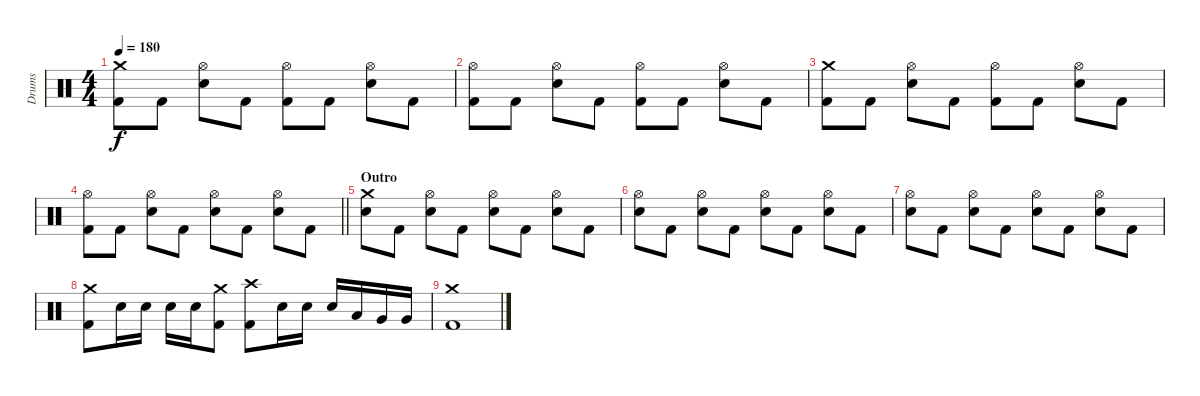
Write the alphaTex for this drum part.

\track ("Drums" "Drums") {instrument percussion}
\staff {score}
\articulation defaults
\ts (4 4)
\tempo 180
\clef neutral
\ks c
("Crash medium (hit)" "Kick (hit) 2").8{dy f} "Kick (hit) 2".8 ("Hi-Hat (open)" "Electric Snare (hit)").8 "Kick (hit) 2".8 ("Hi-Hat (open)" "Kick (hit) 2").8 "Kick (hit) 2".8 ("Hi-Hat (open)" "Electric Snare (hit)").8 "Kick (hit) 2".8 |
("Hi-Hat (open)" "Kick (hit) 2").8 "Kick (hit) 2".8 ("Hi-Hat (open)" "Electric Snare (hit)").8 "Kick (hit) 2".8 ("Hi-Hat (open)" "Kick (hit) 2").8 "Kick (hit) 2".8 ("Hi-Hat (open)" "Electric Snare (hit)").8 "Kick (hit) 2".8 |
("Crash medium (hit)" "Kick (hit) 2").8 "Kick (hit) 2".8 ("Hi-Hat (open)" "Electric Snare (hit)").8 "Kick (hit) 2".8 ("Hi-Hat (open)" "Kick (hit) 2").8 "Kick (hit) 2".8 ("Hi-Hat (open)" "Electric Snare (hit)").8 "Kick (hit) 2".8 |
\barLineRight lightlight
("Hi-Hat (open)" "Kick (hit) 2").8 "Kick (hit) 2".8 ("Hi-Hat (open)" "Electric Snare (hit)").8 "Kick (hit) 2".8 ("Hi-Hat (open)" "Electric Snare (hit)").8 "Kick (hit) 2".8 ("Hi-Hat (open)" "Electric Snare (hit)").8 "Kick (hit) 2".8 |
\section ("" "Outro")
("Crash medium (hit)" "Electric Snare (hit)").8 "Kick (hit) 2".8 ("Hi-Hat (open)" "Electric Snare (hit)").8 "Kick (hit) 2".8 ("Hi-Hat (open)" "Electric Snare (hit)").8 "Kick (hit) 2".8 ("Hi-Hat (open)" "Electric Snare (hit)").8 "Kick (hit) 2".8 |
("Hi-Hat (open)" "Electric Snare (hit)").8 "Kick (hit) 2".8 ("Hi-Hat (open)" "Electric Snare (hit)").8 "Kick (hit) 2".8 ("Hi-Hat (open)" "Electric Snare (hit)").8 "Kick (hit) 2".8 ("Hi-Hat (open)" "Electric Snare (hit)").8 "Kick (hit) 2".8 |
("Hi-Hat (open)" "Electric Snare (hit)").8 "Kick (hit) 2".8 ("Hi-Hat (open)" "Electric Snare (hit)").8 "Kick (hit) 2".8 ("Hi-Hat (open)" "Electric Snare (hit)").8 "Kick (hit) 2".8 ("Hi-Hat (open)" "Electric Snare (hit)").8 "Kick (hit) 2".8 |
("Crash medium (hit)" "Kick (hit) 2").8 "Electric Snare (hit)".16 "Electric Snare (hit)".16 "Electric Snare (hit)".16 "Electric Snare (hit)".16 ("Crash medium (hit)" "Kick (hit) 2").8 ("Crash high (hit)" "Kick (hit) 2").8 "Electric Snare (hit)".16 "Electric Snare (hit)".16 "Electric Snare (hit)".16 "Low Tom (hit)".16 "Very Low Tom (hit)".16 "Very Low Tom (hit)".16 |
("Crash medium (hit)" "Kick (hit) 2").1
